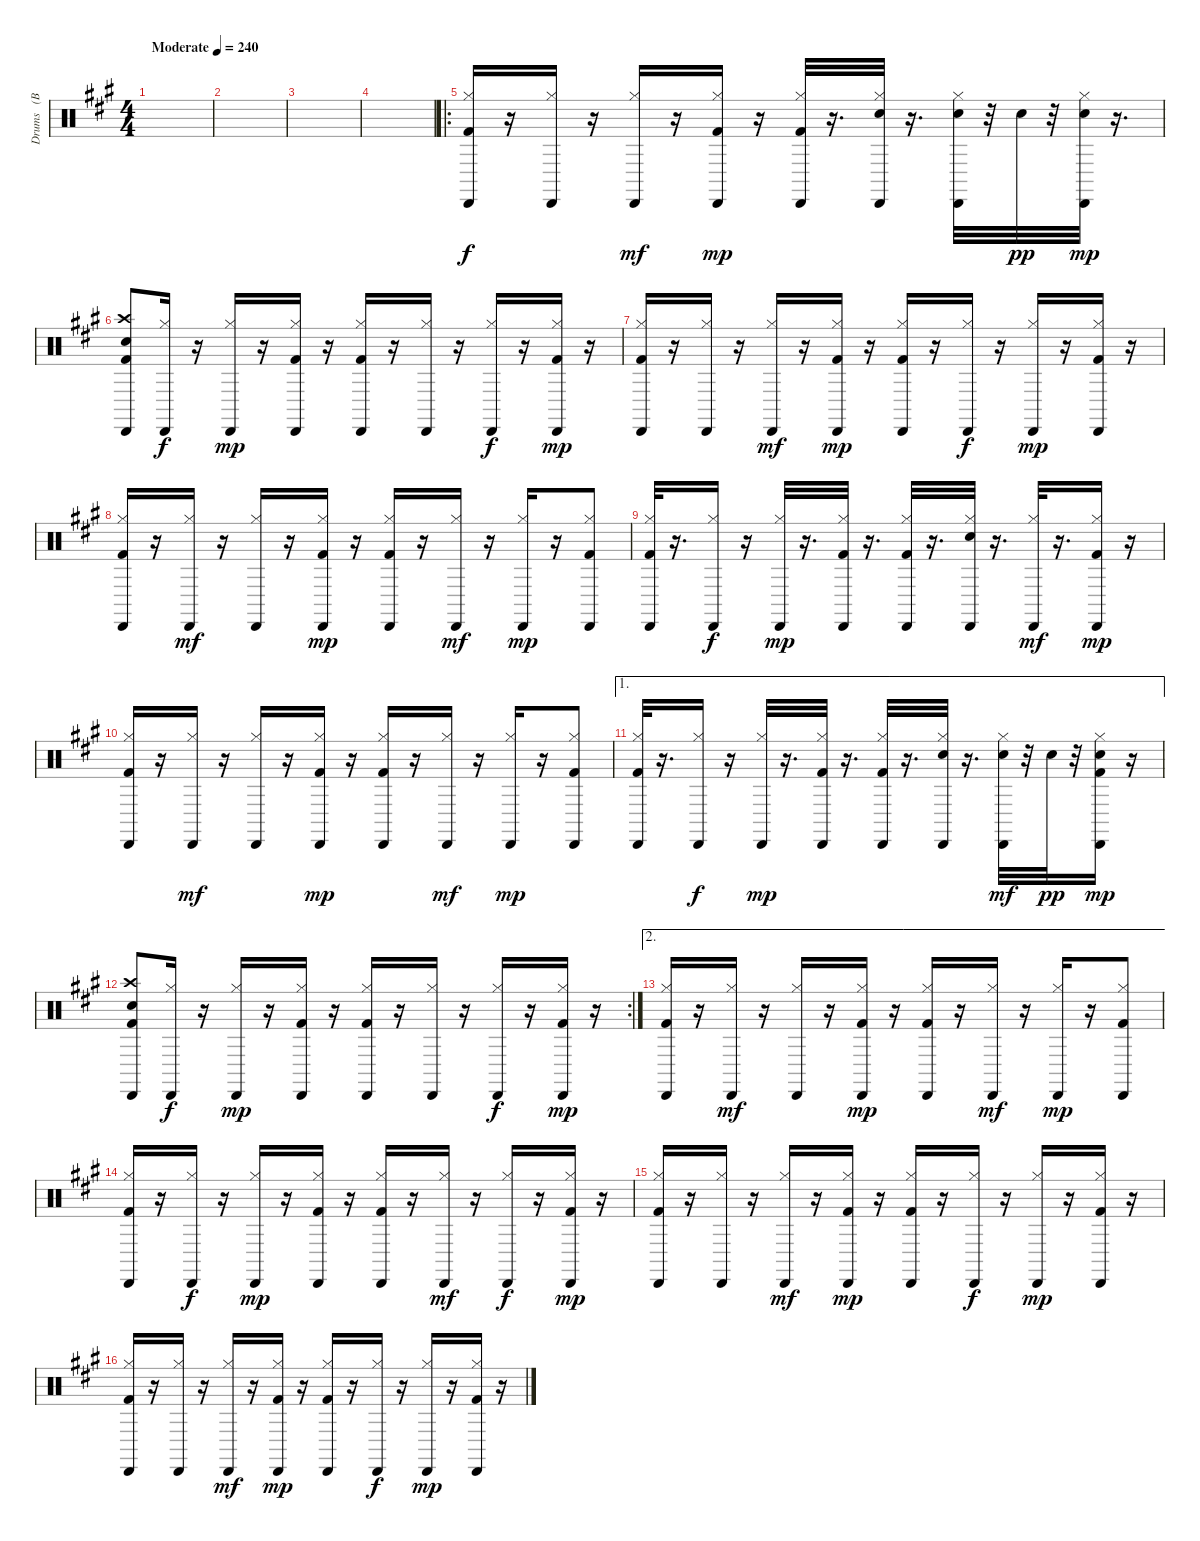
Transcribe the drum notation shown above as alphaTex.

\track ("Drums   (BB)" "Drums   (B") {instrument percussion}
\staff {score}
\articulation defaults
\ts (4 4)
\tempo (240 "Moderate")
\clef neutral
\ks a
|
|
|
|
\ro
("Kick (hit) 2" "Hi-Hat (closed)" "Cabasa (hit)").16 r.16 ("Hi-Hat (closed)" "Cabasa (hit)").16 r.16 ("Hi-Hat (closed)" "Cabasa (hit)").16{dy mf} r.16 ("Kick (hit) 2" "Hi-Hat (closed)" "Cabasa (hit)").16{dy mp} r.16 ("Kick (hit) 2" "Hi-Hat (closed)" "Cabasa (hit)").32 r.16{d} ("Snare (hit) 2" "Hi-Hat (closed)" "Cabasa (hit)").32 r.16{d} ("Electric Snare (hit)" "Hi-Hat (closed)" "Cabasa (hit)").32 r.32 "Snare (hit) 2".32{dy pp} r.32 ("Electric Snare (hit)" "Hi-Hat (closed)" "Cabasa (hit)").32{dy mp} r.16{d} |
("Electric Snare (hit)" "Crash high (hit)" "Kick (hit) 2" "Cabasa (hit)").8 ("Hi-Hat (closed)" "Cabasa (hit)").16{dy f} r.16 ("Hi-Hat (closed)" "Cabasa (hit)").16{dy mp} r.16 ("Kick (hit) 2" "Hi-Hat (closed)" "Cabasa (hit)").16 r.16 ("Kick (hit) 2" "Hi-Hat (closed)" "Cabasa (hit)").16 r.16 ("Hi-Hat (closed)" "Cabasa (hit)").16 r.16 ("Hi-Hat (closed)" "Cabasa (hit)").16{dy f} r.16 ("Kick (hit) 2" "Hi-Hat (closed)" "Cabasa (hit)").16{dy mp} r.16 |
("Kick (hit) 2" "Hi-Hat (closed)" "Cabasa (hit)").16 r.16 ("Hi-Hat (closed)" "Cabasa (hit)").16 r.16 ("Hi-Hat (closed)" "Cabasa (hit)").16{dy mf} r.16 ("Kick (hit) 2" "Hi-Hat (closed)" "Cabasa (hit)").16{dy mp} r.16 ("Kick (hit) 2" "Hi-Hat (closed)" "Cabasa (hit)").16 r.16 ("Hi-Hat (closed)" "Cabasa (hit)").16{dy f} r.16 ("Hi-Hat (closed)" "Cabasa (hit)").16{dy mp} r.16 ("Kick (hit) 2" "Hi-Hat (closed)" "Cabasa (hit)").16 r.16 |
("Kick (hit) 2" "Hi-Hat (closed)" "Cabasa (hit)").16 r.16 ("Hi-Hat (closed)" "Cabasa (hit)").16{dy mf} r.16 ("Hi-Hat (closed)" "Cabasa (hit)").16 r.16 ("Kick (hit) 2" "Hi-Hat (closed)" "Cabasa (hit)").16{dy mp} r.16 ("Kick (hit) 2" "Hi-Hat (closed)" "Cabasa (hit)").16 r.16 ("Hi-Hat (closed)" "Cabasa (hit)").16{dy mf} r.16 ("Hi-Hat (closed)" "Cabasa (hit)").16{dy mp} r.16 ("Kick (hit) 2" "Hi-Hat (closed)" "Cabasa (hit)").8 |
("Kick (hit) 2" "Hi-Hat (closed)" "Cabasa (hit)").32 r.16{d} ("Hi-Hat (closed)" "Cabasa (hit)").16{dy f} r.16 ("Hi-Hat (closed)" "Cabasa (hit)").32{dy mp} r.16{d} ("Kick (hit) 2" "Hi-Hat (closed)" "Cabasa (hit)").32 r.16{d} ("Kick (hit) 2" "Hi-Hat (closed)" "Cabasa (hit)").32 r.16{d} ("Electric Snare (hit)" "Hi-Hat (closed)" "Cabasa (hit)").32 r.16{d} ("Hi-Hat (closed)" "Cabasa (hit)").32{dy mf} r.16{d} ("Kick (hit) 2" "Hi-Hat (closed)" "Cabasa (hit)").16{dy mp} r.16 |
("Kick (hit) 2" "Hi-Hat (closed)" "Cabasa (hit)").16 r.16 ("Hi-Hat (closed)" "Cabasa (hit)").16{dy mf} r.16 ("Hi-Hat (closed)" "Cabasa (hit)").16 r.16 ("Kick (hit) 2" "Hi-Hat (closed)" "Cabasa (hit)").16{dy mp} r.16 ("Kick (hit) 2" "Hi-Hat (closed)" "Cabasa (hit)").16 r.16 ("Hi-Hat (closed)" "Cabasa (hit)").16{dy mf} r.16 ("Hi-Hat (closed)" "Cabasa (hit)").16{dy mp} r.16 ("Kick (hit) 2" "Hi-Hat (closed)" "Cabasa (hit)").8 |
\ae 1
("Kick (hit) 2" "Hi-Hat (closed)" "Cabasa (hit)").32 r.16{d} ("Hi-Hat (closed)" "Cabasa (hit)").16{dy f} r.16 ("Hi-Hat (closed)" "Cabasa (hit)").32{dy mp} r.16{d} ("Kick (hit) 2" "Hi-Hat (closed)" "Cabasa (hit)").32 r.16{d} ("Kick (hit) 2" "Hi-Hat (closed)" "Cabasa (hit)").32 r.16{d} ("Electric Snare (hit)" "Hi-Hat (closed)" "Cabasa (hit)").32 r.16{d} ("Electric Snare (hit)" "Hi-Hat (closed)" "Cabasa (hit)").32{dy mf} r.32 "Snare (hit) 2".32{dy pp} r.32 ("Electric Snare (hit)" "Kick (hit) 2" "Hi-Hat (closed)" "Cabasa (hit)").16{dy mp} r.16 |
\rc 2
("Electric Snare (hit)" "Crash high (hit)" "Kick (hit) 2" "Cabasa (hit)").8 ("Hi-Hat (closed)" "Cabasa (hit)").16{dy f} r.16 ("Hi-Hat (closed)" "Cabasa (hit)").16{dy mp} r.16 ("Kick (hit) 2" "Hi-Hat (closed)" "Cabasa (hit)").16 r.16 ("Kick (hit) 2" "Hi-Hat (closed)" "Cabasa (hit)").16 r.16 ("Hi-Hat (closed)" "Cabasa (hit)").16 r.16 ("Hi-Hat (closed)" "Cabasa (hit)").16{dy f} r.16 ("Kick (hit) 2" "Hi-Hat (closed)" "Cabasa (hit)").16{dy mp} r.16 |
\ae 2
("Kick (hit) 2" "Hi-Hat (closed)" "Cabasa (hit)").16 r.16 ("Hi-Hat (closed)" "Cabasa (hit)").16{dy mf} r.16 ("Hi-Hat (closed)" "Cabasa (hit)").16 r.16 ("Kick (hit) 2" "Hi-Hat (closed)" "Cabasa (hit)").16{dy mp} r.16 ("Kick (hit) 2" "Hi-Hat (closed)" "Cabasa (hit)").16 r.16 ("Hi-Hat (closed)" "Cabasa (hit)").16{dy mf} r.16 ("Hi-Hat (closed)" "Cabasa (hit)").16{dy mp} r.16 ("Kick (hit) 2" "Hi-Hat (closed)" "Cabasa (hit)").8 |
("Kick (hit) 2" "Hi-Hat (closed)" "Cabasa (hit)").16 r.16 ("Hi-Hat (closed)" "Cabasa (hit)").16{dy f} r.16 ("Hi-Hat (closed)" "Cabasa (hit)").16{dy mp} r.16 ("Kick (hit) 2" "Hi-Hat (closed)" "Cabasa (hit)").16 r.16 ("Kick (hit) 2" "Hi-Hat (closed)" "Cabasa (hit)").16 r.16 ("Hi-Hat (closed)" "Cabasa (hit)").16{dy mf} r.16 ("Hi-Hat (closed)" "Cabasa (hit)").16{dy f} r.16 ("Kick (hit) 2" "Hi-Hat (closed)" "Cabasa (hit)").16{dy mp} r.16 |
("Kick (hit) 2" "Hi-Hat (closed)" "Cabasa (hit)").16 r.16 ("Hi-Hat (closed)" "Cabasa (hit)").16 r.16 ("Hi-Hat (closed)" "Cabasa (hit)").16{dy mf} r.16 ("Kick (hit) 2" "Hi-Hat (closed)" "Cabasa (hit)").16{dy mp} r.16 ("Kick (hit) 2" "Hi-Hat (closed)" "Cabasa (hit)").16 r.16 ("Hi-Hat (closed)" "Cabasa (hit)").16{dy f} r.16 ("Hi-Hat (closed)" "Cabasa (hit)").16{dy mp} r.16 ("Kick (hit) 2" "Hi-Hat (closed)" "Cabasa (hit)").16 r.16 |
("Kick (hit) 2" "Hi-Hat (closed)" "Cabasa (hit)").16 r.16 ("Hi-Hat (closed)" "Cabasa (hit)").16 r.16 ("Hi-Hat (closed)" "Cabasa (hit)").16{dy mf} r.16 ("Kick (hit) 2" "Hi-Hat (closed)" "Cabasa (hit)").16{dy mp} r.16 ("Kick (hit) 2" "Hi-Hat (closed)" "Cabasa (hit)").16 r.16 ("Hi-Hat (closed)" "Cabasa (hit)").16{dy f} r.16 ("Hi-Hat (closed)" "Cabasa (hit)").16{dy mp} r.16 ("Kick (hit) 2" "Hi-Hat (closed)" "Cabasa (hit)").16 r.16
